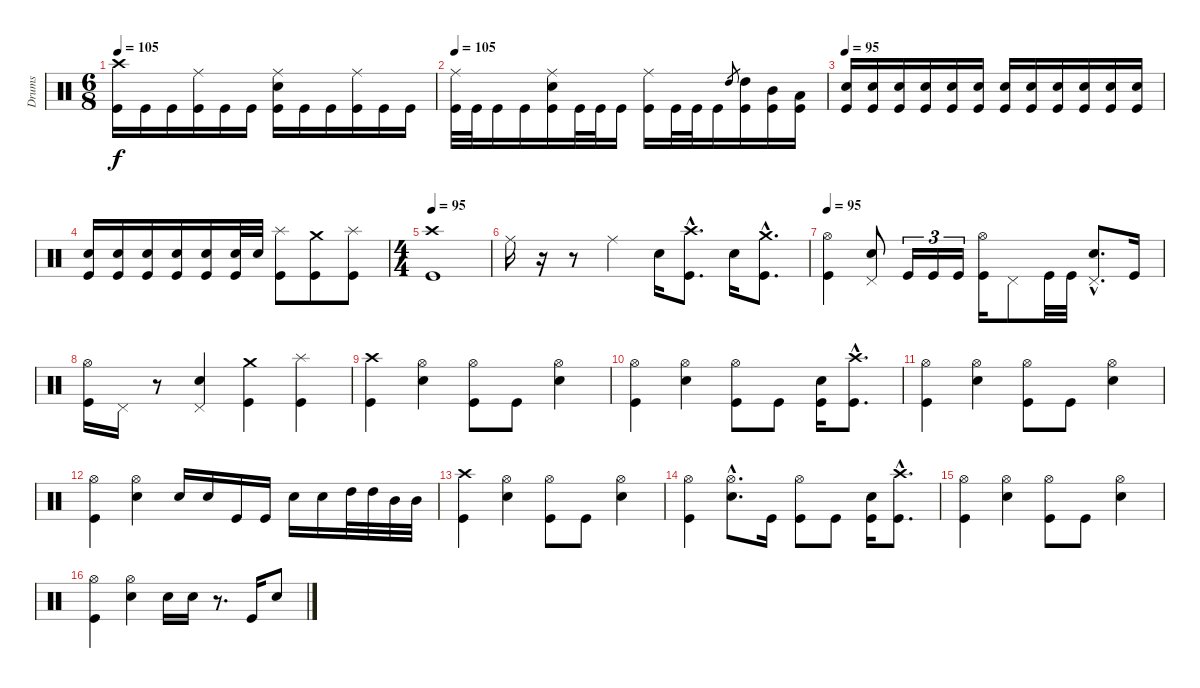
\track ("Drums" "Drums") {instrument percussion}
\staff {score}
\articulation defaults
\ts (6 8)
\tempo 105
\clef neutral
\ks c
("Crash high (hit)" "Kick (hit)").16{dy f} "Kick (hit)".16 "Kick (hit)".16 ("Ride (middle)" "Kick (hit)").16 "Kick (hit)".16 "Kick (hit)".16 ("Ride (middle)" "Electric Snare (hit)" "Kick (hit)").16 "Kick (hit)".16 "Kick (hit)".16 ("Ride (middle)" "Kick (hit)").16 "Kick (hit)".16 "Kick (hit)".16 |
\tempo 105
("Ride (middle)" "Kick (hit)").32 "Kick (hit)".32 "Kick (hit)".16 "Kick (hit)".16 ("Ride (middle)" "Electric Snare (hit)" "Kick (hit)").16 "Kick (hit)".32 "Kick (hit)".32 "Kick (hit)".16 ("Ride (middle)" "Kick (hit)").16 "Kick (hit)".32 "Kick (hit)".32 "Kick (hit)".16 "High Tom (hit)"{sl}.8{gr} ("High Tom (hit)" "Kick (hit)").16 ("Mid Tom (hit)" "Kick (hit)").16 ("Low Tom (hit)" "Kick (hit)").16 |
\tempo 95
("Electric Snare (hit)" "Kick (hit)").16 ("Electric Snare (hit)" "Kick (hit)").16 ("Electric Snare (hit)" "Kick (hit)").16 ("Electric Snare (hit)" "Kick (hit)").16 ("Electric Snare (hit)" "Kick (hit)").16 ("Electric Snare (hit)" "Kick (hit)").16 ("Electric Snare (hit)" "Kick (hit)").16 ("Electric Snare (hit)" "Kick (hit)").16 ("Electric Snare (hit)" "Kick (hit)").16 ("Electric Snare (hit)" "Kick (hit)").16 ("Electric Snare (hit)" "Kick (hit)").16 ("Electric Snare (hit)" "Kick (hit)").16 |
("Electric Snare (hit)" "Kick (hit)").16 ("Electric Snare (hit)" "Kick (hit)").16 ("Electric Snare (hit)" "Kick (hit)").16 ("Electric Snare (hit)" "Kick (hit)").16 ("Electric Snare (hit)" "Kick (hit)").16 ("Electric Snare (hit)" "Kick (hit)").32 "Electric Snare (hit)".32 ("Splash (hit)" "Kick (hit)").8 ("Crash medium (hit)" "Kick (hit)").8 ("Splash (hit)" "Kick (hit)").8 |
\ts (4 4)
\tempo 95
("Crash high (hit)" "Kick (hit)").1 |
"Ride (middle)".16{balance 16} r.16 r.8 "Ride (middle)".4{balance 0} "Electric Snare (hit)".16{balance 8} ("Crash high (hit)"{hac} "Kick (hit)"{hac}).8{d} "Electric Snare (hit)".16 ("Crash medium (hit)"{hac} "Kick (hit)"{hac}).8{d} |
\tempo 95
("Hi-Hat (open)" "Kick (hit)").4 ("Pedal Hi-Hat (hit)" "Electric Snare (hit)").8 "Kick (hit)".16{tu (3 2)} "Kick (hit)".16{tu (3 2)} "Kick (hit)".16{tu (3 2)} ("Hi-Hat (open)" "Kick (hit)").16 "Pedal Hi-Hat (hit)".8 "Kick (hit)".32 "Kick (hit)".32 ("Pedal Hi-Hat (hit)"{hac} "Electric Snare (hit)"{hac}).8{d} "Kick (hit)".16 |
("Hi-Hat (open)" "Kick (hit)").16 "Pedal Hi-Hat (hit)".16 r.8 ("Pedal Hi-Hat (hit)" "Electric Snare (hit)").4 ("Crash medium (hit)" "Kick (hit)").4 ("Splash (hit)" "Kick (hit)").4 |
("Crash high (hit)" "Kick (hit)").4 ("Hi-Hat (open)" "Electric Snare (hit)").4 ("Hi-Hat (open)" "Kick (hit)").8 "Kick (hit)".8 ("Hi-Hat (open)" "Electric Snare (hit)").4 |
("Hi-Hat (open)" "Kick (hit)").4 ("Hi-Hat (open)" "Electric Snare (hit)").4 ("Hi-Hat (open)" "Kick (hit)").8 "Kick (hit)".8 ("Electric Snare (hit)" "Kick (hit)").16 ("Crash high (hit)"{hac} "Kick (hit)"{hac}).8{d} |
("Hi-Hat (open)" "Kick (hit)").4 ("Hi-Hat (open)" "Electric Snare (hit)").4 ("Hi-Hat (open)" "Kick (hit)").8 "Kick (hit)".8 ("Hi-Hat (open)" "Electric Snare (hit)").4 |
("Hi-Hat (open)" "Kick (hit)").4 ("Hi-Hat (open)" "Electric Snare (hit)").4 "Electric Snare (hit)".16 "Electric Snare (hit)".16 "Kick (hit)".16 "Kick (hit)".16 "Electric Snare (hit)".16 "Electric Snare (hit)".16 "High Tom (hit)".32 "High Tom (hit)".32 "Mid Tom (hit)".32 "Mid Tom (hit)".32 |
("Crash high (hit)" "Kick (hit)").4 ("Hi-Hat (open)" "Electric Snare (hit)").4 ("Hi-Hat (open)" "Kick (hit)").8 "Kick (hit)".8 ("Hi-Hat (open)" "Electric Snare (hit)").4 |
("Hi-Hat (open)" "Kick (hit)").4 ("Hi-Hat (open)"{hac} "Electric Snare (hit)"{hac}).8{d} "Kick (hit)".16 ("Hi-Hat (open)" "Kick (hit)").8 "Kick (hit)".8 ("Electric Snare (hit)" "Kick (hit)").16 ("Crash high (hit)"{hac} "Kick (hit)"{hac}).8{d} |
("Hi-Hat (open)" "Kick (hit)").4 ("Hi-Hat (open)" "Electric Snare (hit)").4 ("Hi-Hat (open)" "Kick (hit)").8 "Kick (hit)".8 ("Hi-Hat (open)" "Electric Snare (hit)").4 |
("Hi-Hat (open)" "Kick (hit)").4 ("Hi-Hat (open)" "Electric Snare (hit)").4 "Electric Snare (hit)".16 "Electric Snare (hit)".16 r.8{d} "Kick (hit)".16 "Electric Snare (hit)".8
